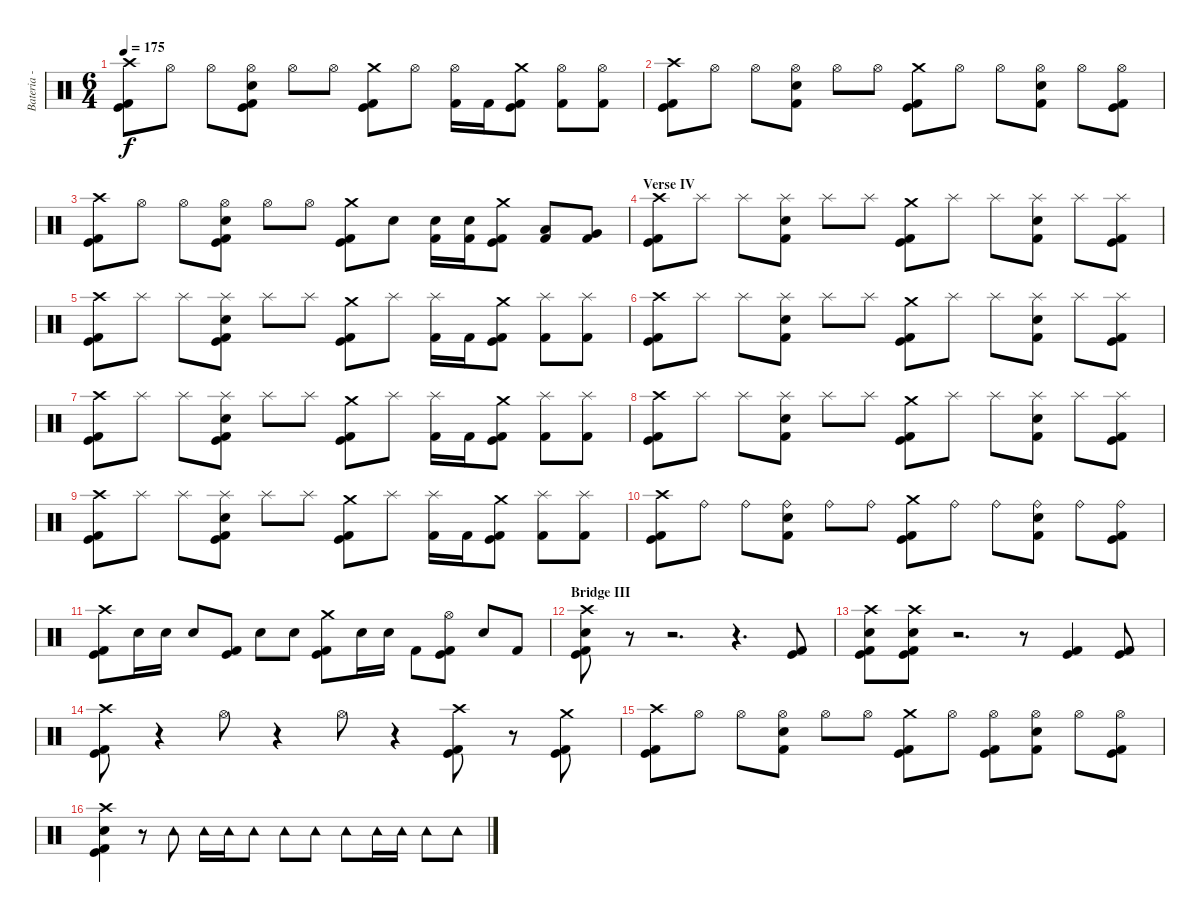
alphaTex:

\track ("Bateria - Drums" "Bateria - ") {instrument percussion}
\staff {score}
\articulation defaults
\ts (6 4)
\tempo 175
\clef neutral
\ks c
("Crash high (hit)" "Kick (hit)" "Kick (hit) 2").8{dy f} "Hi-Hat (open)".8 "Hi-Hat (open)".8 ("Hi-Hat (open)" "Snare (hit) 2" "Kick (hit)" "Kick (hit) 2").8 "Hi-Hat (open)".8 "Hi-Hat (open)".8 ("Crash medium (hit)" "Kick (hit)" "Kick (hit) 2").8 "Hi-Hat (open)".8 ("Hi-Hat (open)" "Kick (hit) 2").16 "Kick (hit) 2".16 ("Crash medium (hit)" "Kick (hit)" "Kick (hit) 2").8 ("Hi-Hat (open)" "Kick (hit) 2").8 ("Hi-Hat (open)" "Kick (hit) 2").8 |
("Crash high (hit)" "Kick (hit)" "Kick (hit) 2").8 "Hi-Hat (open)".8 "Hi-Hat (open)".8 ("Hi-Hat (open)" "Snare (hit) 2" "Kick (hit) 2").8 "Hi-Hat (open)".8 "Hi-Hat (open)".8 ("Crash medium (hit)" "Kick (hit)" "Kick (hit) 2").8 "Hi-Hat (open)".8 "Hi-Hat (open)".8 ("Hi-Hat (open)" "Snare (hit) 2" "Kick (hit) 2").8 "Hi-Hat (open)".8 ("Hi-Hat (open)" "Kick (hit)" "Kick (hit) 2").8 |
("Crash high (hit)" "Kick (hit)" "Kick (hit) 2").8 "Hi-Hat (open)".8 "Hi-Hat (open)".8 ("Hi-Hat (open)" "Snare (hit) 2" "Kick (hit)" "Kick (hit) 2").8 "Hi-Hat (open)".8 "Hi-Hat (open)".8 ("Crash medium (hit)" "Kick (hit)" "Kick (hit) 2").8 "Snare (hit) 2".8 ("Snare (hit) 2" "Kick (hit) 2").16 ("Snare (hit) 2" "Kick (hit) 2").16 ("Crash medium (hit)" "Kick (hit)" "Kick (hit) 2").8 ("Low Tom (hit)" "Kick (hit) 2").8 ("Very Low Tom (hit)" "Kick (hit) 2").8 |
\section ("" "Verse IV")
("Crash high (hit)" "Kick (hit)" "Kick (hit) 2").8 "Splash (hit)".8 "Splash (hit)".8 ("Splash (hit)" "Snare (hit) 2" "Kick (hit) 2").8 "Splash (hit)".8 "Splash (hit)".8 ("Crash medium (hit)" "Kick (hit)" "Kick (hit) 2").8 "Splash (hit)".8 "Splash (hit)".8 ("Splash (hit)" "Snare (hit) 2" "Kick (hit) 2").8 "Splash (hit)".8 ("Splash (hit)" "Kick (hit)" "Kick (hit) 2").8 |
("Crash high (hit)" "Kick (hit)" "Kick (hit) 2").8 "Splash (hit)".8 "Splash (hit)".8 ("Splash (hit)" "Snare (hit) 2" "Kick (hit)" "Kick (hit) 2").8 "Splash (hit)".8 "Splash (hit)".8 ("Crash medium (hit)" "Kick (hit)" "Kick (hit) 2").8 "Splash (hit)".8 ("Splash (hit)" "Kick (hit) 2").16 "Kick (hit) 2".16 ("Crash medium (hit)" "Kick (hit)" "Kick (hit) 2").8 ("Splash (hit)" "Kick (hit) 2").8 ("Splash (hit)" "Kick (hit) 2").8 |
("Crash high (hit)" "Kick (hit)" "Kick (hit) 2").8 "Splash (hit)".8 "Splash (hit)".8 ("Splash (hit)" "Snare (hit) 2" "Kick (hit) 2").8 "Splash (hit)".8 "Splash (hit)".8 ("Crash medium (hit)" "Kick (hit)" "Kick (hit) 2").8 "Splash (hit)".8 "Splash (hit)".8 ("Splash (hit)" "Snare (hit) 2" "Kick (hit) 2").8 "Splash (hit)".8 ("Splash (hit)" "Kick (hit)" "Kick (hit) 2").8 |
("Crash high (hit)" "Kick (hit)" "Kick (hit) 2").8 "Splash (hit)".8 "Splash (hit)".8 ("Splash (hit)" "Snare (hit) 2" "Kick (hit)" "Kick (hit) 2").8 "Splash (hit)".8 "Splash (hit)".8 ("Crash medium (hit)" "Kick (hit)" "Kick (hit) 2").8 "Splash (hit)".8 ("Splash (hit)" "Kick (hit) 2").16 "Kick (hit) 2".16 ("Crash medium (hit)" "Kick (hit)" "Kick (hit) 2").8 ("Splash (hit)" "Kick (hit) 2").8 ("Splash (hit)" "Kick (hit) 2").8 |
("Crash high (hit)" "Kick (hit)" "Kick (hit) 2").8 "Splash (hit)".8 "Splash (hit)".8 ("Splash (hit)" "Snare (hit) 2" "Kick (hit) 2").8 "Splash (hit)".8 "Splash (hit)".8 ("Crash medium (hit)" "Kick (hit)" "Kick (hit) 2").8 "Splash (hit)".8 "Splash (hit)".8 ("Splash (hit)" "Snare (hit) 2" "Kick (hit) 2").8 "Splash (hit)".8 ("Splash (hit)" "Kick (hit)" "Kick (hit) 2").8 |
("Crash high (hit)" "Kick (hit)" "Kick (hit) 2").8 "Splash (hit)".8 "Splash (hit)".8 ("Splash (hit)" "Snare (hit) 2" "Kick (hit)" "Kick (hit) 2").8 "Splash (hit)".8 "Splash (hit)".8 ("Crash medium (hit)" "Kick (hit)" "Kick (hit) 2").8 "Splash (hit)".8 ("Splash (hit)" "Kick (hit) 2").16 "Kick (hit) 2".16 ("Crash medium (hit)" "Kick (hit)" "Kick (hit) 2").8 ("Splash (hit)" "Kick (hit) 2").8 ("Splash (hit)" "Kick (hit) 2").8 |
("Crash high (hit)" "Kick (hit)" "Kick (hit) 2").8 "Ride (bell)".8 "Ride (bell)".8 ("Ride (bell)" "Snare (hit) 2" "Kick (hit) 2").8 "Ride (bell)".8 "Ride (bell)".8 ("Crash medium (hit)" "Kick (hit)" "Kick (hit) 2").8 "Ride (bell)".8 "Ride (bell)".8 ("Ride (bell)" "Snare (hit) 2" "Kick (hit) 2").8 "Ride (bell)".8 ("Ride (bell)" "Kick (hit)" "Kick (hit) 2").8 |
("Crash high (hit)" "Kick (hit)" "Kick (hit) 2").8 "Electric Snare (hit)".16 "Electric Snare (hit)".16 "Snare (hit) 2".8 ("Kick (hit)" "Kick (hit) 2").8 "Snare (hit) 2".8 "Snare (hit) 2".8 ("Crash medium (hit)" "Kick (hit)" "Kick (hit) 2").8 "Snare (hit) 2".16 "Snare (hit) 2".16 "Kick (hit) 2".8 ("Hi-Hat (open)" "Kick (hit)" "Kick (hit) 2").8 "Snare (hit) 2".8 "Kick (hit) 2".8 |
\section ("" "Bridge III")
("Crash high (hit)" "Snare (hit) 2" "Kick (hit)" "Kick (hit) 2").8 r.8 r.2{d} r.4{d} ("Kick (hit)" "Kick (hit) 2").8 |
("Crash high (hit)" "Snare (hit) 2" "Kick (hit)" "Kick (hit) 2").8 ("Crash high (hit)" "Snare (hit) 2" "Kick (hit)" "Kick (hit) 2").8 r.2{d} r.8 ("Kick (hit)" "Kick (hit) 2").4 ("Kick (hit)" "Kick (hit) 2").8 |
("Crash high (hit)" "Kick (hit)" "Kick (hit) 2").8 r.4 "Hi-Hat (open)".8 r.4 "Hi-Hat (open)".8 r.4 ("Crash high (hit)" "Kick (hit)" "Kick (hit) 2").8 r.8 ("Crash medium (hit)" "Kick (hit)" "Kick (hit) 2").8 |
("Crash high (hit)" "Kick (hit)" "Kick (hit) 2").8 "Hi-Hat (open)".8 "Hi-Hat (open)".8 ("Hi-Hat (open)" "Snare (hit) 2" "Kick (hit) 2").8 "Hi-Hat (open)".8 "Hi-Hat (open)".8 ("Crash medium (hit)" "Kick (hit)" "Kick (hit) 2").8 "Hi-Hat (open)".8 ("Hi-Hat (open)" "Kick (hit)" "Kick (hit) 2").8 ("Hi-Hat (open)" "Snare (hit) 2" "Kick (hit) 2").8 "Hi-Hat (open)".8 ("Hi-Hat (open)" "Kick (hit)" "Kick (hit) 2").8 |
("Crash high (hit)" "Snare (hit) 2" "Kick (hit)" "Kick (hit) 2").4 r.8 "Tambourine (hit)".8 "Tambourine (hit)".16 "Tambourine (hit)".16 "Tambourine (hit)".8 "Tambourine (hit)".8 "Tambourine (hit)".8 "Tambourine (hit)".8 "Tambourine (hit)".16 "Tambourine (hit)".16 "Tambourine (hit)".8 "Tambourine (hit)".8
